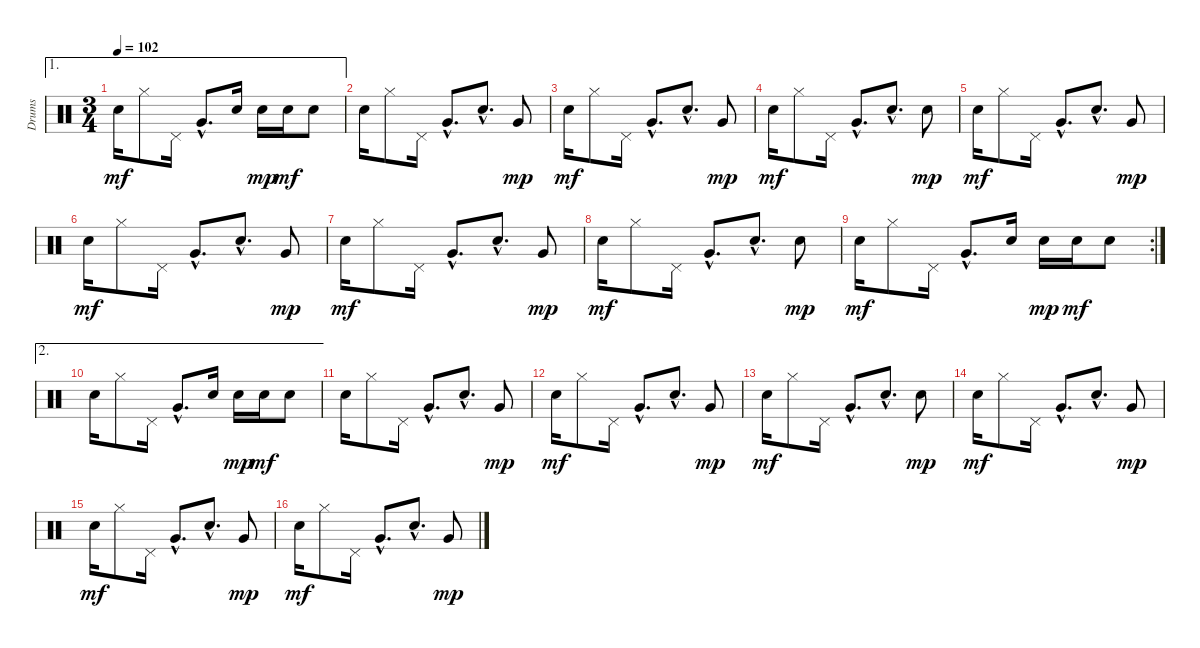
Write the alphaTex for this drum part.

\track ("Drums" "Drums") {instrument percussion}
\staff {score}
\articulation defaults
\ae 1
\ts (3 4)
\tempo 102
\clef neutral
\ks c "Electric Snare (hit)".16{dy mf} "Hi-Hat (closed)".8 "Pedal Hi-Hat (hit)".16 "Very Low Tom (hit)"{hac}.8{d} "Electric Snare (hit)".16 "Electric Snare (hit)".16{dy mp} "Electric Snare (hit)".16{dy mf} "Electric Snare (hit)".8
|
"Electric Snare (hit)".16 "Hi-Hat (closed)".8 "Pedal Hi-Hat (hit)".16 "Very Low Tom (hit)"{hac}.8{d} "Electric Snare (hit)"{hac}.8{d} "Very Low Tom (hit)".8{dy mp} |
"Electric Snare (hit)".16{dy mf} "Hi-Hat (closed)".8 "Pedal Hi-Hat (hit)".16 "Very Low Tom (hit)"{hac}.8{d} "Electric Snare (hit)"{hac}.8{d} "Very Low Tom (hit)".8{dy mp} |
"Electric Snare (hit)".16{dy mf} "Hi-Hat (closed)".8 "Pedal Hi-Hat (hit)".16 "Very Low Tom (hit)"{hac}.8{d} "Electric Snare (hit)"{hac}.8{d} "Electric Snare (hit)".8{dy mp} |
"Electric Snare (hit)".16{dy mf} "Hi-Hat (closed)".8 "Pedal Hi-Hat (hit)".16 "Very Low Tom (hit)"{hac}.8{d} "Electric Snare (hit)"{hac}.8{d} "Very Low Tom (hit)".8{dy mp} |
"Electric Snare (hit)".16{dy mf} "Hi-Hat (closed)".8 "Pedal Hi-Hat (hit)".16 "Very Low Tom (hit)"{hac}.8{d} "Electric Snare (hit)"{hac}.8{d} "Very Low Tom (hit)".8{dy mp} |
"Electric Snare (hit)".16{dy mf} "Hi-Hat (closed)".8 "Pedal Hi-Hat (hit)".16 "Very Low Tom (hit)"{hac}.8{d} "Electric Snare (hit)"{hac}.8{d} "Very Low Tom (hit)".8{dy mp} |
"Electric Snare (hit)".16{dy mf} "Hi-Hat (closed)".8 "Pedal Hi-Hat (hit)".16 "Very Low Tom (hit)"{hac}.8{d} "Electric Snare (hit)"{hac}.8{d} "Electric Snare (hit)".8{dy mp} |
\rc 2 "Electric Snare (hit)".16{dy mf} "Hi-Hat (closed)".8 "Pedal Hi-Hat (hit)".16 "Very Low Tom (hit)"{hac}.8{d} "Electric Snare (hit)".16 "Electric Snare (hit)".16{dy mp} "Electric Snare (hit)".16{dy mf} "Electric Snare (hit)".8
|
\ae 2 "Electric Snare (hit)".16 "Hi-Hat (closed)".8 "Pedal Hi-Hat (hit)".16 "Very Low Tom (hit)"{hac}.8{d} "Electric Snare (hit)".16 "Electric Snare (hit)".16{dy mp} "Electric Snare (hit)".16{dy mf} "Electric Snare (hit)".8
|
"Electric Snare (hit)".16 "Hi-Hat (closed)".8 "Pedal Hi-Hat (hit)".16 "Very Low Tom (hit)"{hac}.8{d} "Electric Snare (hit)"{hac}.8{d} "Very Low Tom (hit)".8{dy mp} |
"Electric Snare (hit)".16{dy mf} "Hi-Hat (closed)".8 "Pedal Hi-Hat (hit)".16 "Very Low Tom (hit)"{hac}.8{d} "Electric Snare (hit)"{hac}.8{d} "Very Low Tom (hit)".8{dy mp} |
"Electric Snare (hit)".16{dy mf} "Hi-Hat (closed)".8 "Pedal Hi-Hat (hit)".16 "Very Low Tom (hit)"{hac}.8{d} "Electric Snare (hit)"{hac}.8{d} "Electric Snare (hit)".8{dy mp} |
"Electric Snare (hit)".16{dy mf} "Hi-Hat (closed)".8 "Pedal Hi-Hat (hit)".16 "Very Low Tom (hit)"{hac}.8{d} "Electric Snare (hit)"{hac}.8{d} "Very Low Tom (hit)".8{dy mp} |
"Electric Snare (hit)".16{dy mf} "Hi-Hat (closed)".8 "Pedal Hi-Hat (hit)".16 "Very Low Tom (hit)"{hac}.8{d} "Electric Snare (hit)"{hac}.8{d} "Very Low Tom (hit)".8{dy mp} |
"Electric Snare (hit)".16{dy mf} "Hi-Hat (closed)".8 "Pedal Hi-Hat (hit)".16 "Very Low Tom (hit)"{hac}.8{d} "Electric Snare (hit)"{hac}.8{d} "Very Low Tom (hit)".8{dy mp}
